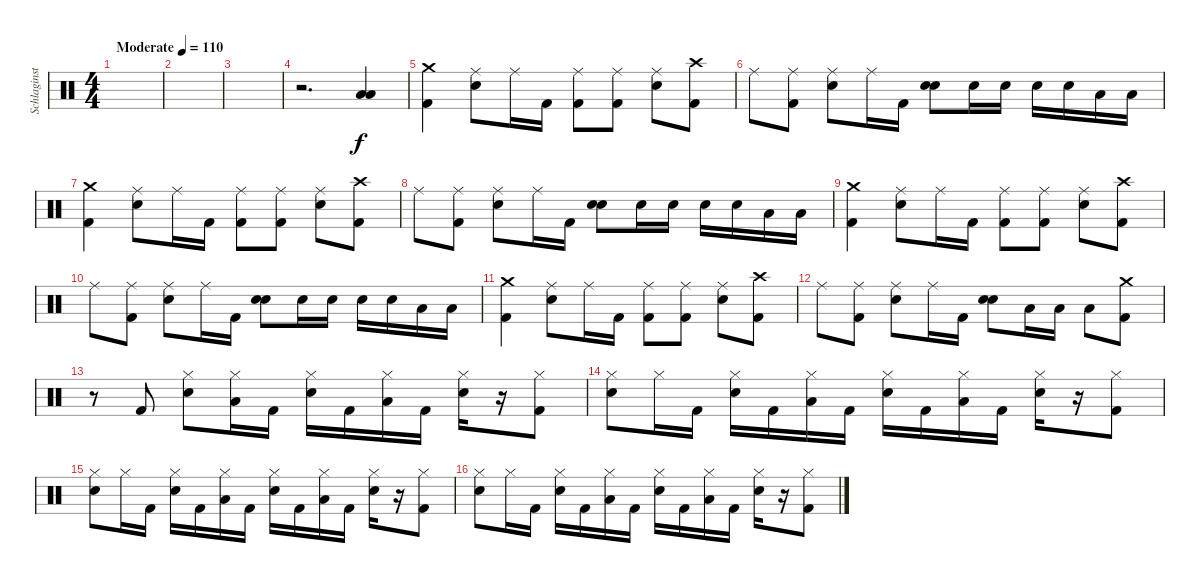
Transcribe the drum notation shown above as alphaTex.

\track ("Schlaginstrumente - Auswahl" "Schlaginst") {instrument percussion}
\staff {score}
\articulation defaults
\ts (4 4)
\tempo (110 "Moderate")
\clef neutral
\ks c
|
|
|
r.2{d} ("Low Tom (hit)" "Low Floor Tom (hit)").4 |
("Crash medium (hit)" "Kick (hit) 2").4 ("Ride (middle)" "Snare (hit) 2").8 "Ride (middle)".16 "Kick (hit) 2".16 ("Ride (middle)" "Kick (hit) 2").8 ("Ride (middle)" "Kick (hit) 2").8 ("Ride (middle)" "Snare (hit) 2").8 ("Crash high (hit)" "Kick (hit) 2").8 |
"Ride (middle)".8 ("Ride (middle)" "Kick (hit) 2").8 ("Ride (middle)" "Snare (hit) 2").8 "Ride (middle)".16 "Kick (hit) 2".16 ("Snare (hit) 2" "Snare (hit) 2").8{bd 240} "Snare (hit) 2".16 "Snare (hit) 2".16 "Snare (hit) 2".16 "Snare (hit) 2".16 "Low Tom (hit)".16 "Low Tom (hit)".16 |
("Crash medium (hit)" "Kick (hit) 2").4 ("Ride (middle)" "Snare (hit) 2").8 "Ride (middle)".16 "Kick (hit) 2".16 ("Ride (middle)" "Kick (hit) 2").8 ("Ride (middle)" "Kick (hit) 2").8 ("Ride (middle)" "Snare (hit) 2").8 ("Crash high (hit)" "Kick (hit) 2").8 |
"Ride (middle)".8 ("Ride (middle)" "Kick (hit) 2").8 ("Ride (middle)" "Snare (hit) 2").8 "Ride (middle)".16 "Kick (hit) 2".16 ("Snare (hit) 2" "Snare (hit) 2").8{bd 240} "Snare (hit) 2".16 "Snare (hit) 2".16 "Snare (hit) 2".16 "Snare (hit) 2".16 "Low Tom (hit)".16 "Low Tom (hit)".16 |
("Crash medium (hit)" "Kick (hit) 2").4 ("Ride (middle)" "Snare (hit) 2").8 "Ride (middle)".16 "Kick (hit) 2".16 ("Ride (middle)" "Kick (hit) 2").8 ("Ride (middle)" "Kick (hit) 2").8 ("Ride (middle)" "Snare (hit) 2").8 ("Crash high (hit)" "Kick (hit) 2").8 |
"Ride (middle)".8 ("Ride (middle)" "Kick (hit) 2").8 ("Ride (middle)" "Snare (hit) 2").8 "Ride (middle)".16 "Kick (hit) 2".16 ("Snare (hit) 2" "Snare (hit) 2").8{bd 240} "Snare (hit) 2".16 "Snare (hit) 2".16 "Snare (hit) 2".16 "Snare (hit) 2".16 "Low Tom (hit)".16 "Low Tom (hit)".16 |
("Crash medium (hit)" "Kick (hit) 2").4 ("Ride (middle)" "Snare (hit) 2").8 "Ride (middle)".16 "Kick (hit) 2".16 ("Ride (middle)" "Kick (hit) 2").8 ("Ride (middle)" "Kick (hit) 2").8 ("Ride (middle)" "Snare (hit) 2").8 ("Crash high (hit)" "Kick (hit) 2").8 |
"Ride (middle)".8 ("Ride (middle)" "Kick (hit) 2").8 ("Ride (middle)" "Snare (hit) 2").8 "Ride (middle)".16 "Kick (hit) 2".16 ("Snare (hit) 2" "Snare (hit) 2").8{bd 240} "Low Tom (hit)".16 "Low Tom (hit)".16 "Low Floor Tom (hit)".8 ("Crash medium (hit)" "Kick (hit) 2").8 |
r.8 "Kick (hit) 2".8 ("Hi-Hat (closed)" "Snare (hit) 2").8 ("Hi-Hat (closed)" "Low Floor Tom (hit)").16 "Kick (hit) 2".16 ("Hi-Hat (closed)" "Snare (hit) 2").16 "Kick (hit) 2".16 ("Hi-Hat (closed)" "Low Floor Tom (hit)").16 "Kick (hit) 2".16 ("Hi-Hat (closed)" "Snare (hit) 2").16 r.16 ("Hi-Hat (closed)" "Kick (hit) 2").8 |
("Hi-Hat (closed)" "Snare (hit) 2").8 "Hi-Hat (closed)".16 "Kick (hit) 2".16 ("Hi-Hat (closed)" "Snare (hit) 2").16 "Kick (hit) 2".16 ("Hi-Hat (closed)" "Low Floor Tom (hit)").16 "Kick (hit) 2".16 ("Hi-Hat (closed)" "Snare (hit) 2").16 "Kick (hit) 2".16 ("Hi-Hat (closed)" "Low Floor Tom (hit)").16 "Kick (hit) 2".16 ("Hi-Hat (closed)" "Snare (hit) 2").16 r.16 ("Hi-Hat (closed)" "Kick (hit) 2").8 |
("Hi-Hat (closed)" "Snare (hit) 2").8 "Hi-Hat (closed)".16 "Kick (hit) 2".16 ("Hi-Hat (closed)" "Snare (hit) 2").16 "Kick (hit) 2".16 ("Hi-Hat (closed)" "Low Floor Tom (hit)").16 "Kick (hit) 2".16 ("Hi-Hat (closed)" "Snare (hit) 2").16 "Kick (hit) 2".16 ("Hi-Hat (closed)" "Low Floor Tom (hit)").16 "Kick (hit) 2".16 ("Hi-Hat (closed)" "Snare (hit) 2").16 r.16 ("Hi-Hat (closed)" "Kick (hit) 2").8 |
("Hi-Hat (closed)" "Snare (hit) 2").8 "Hi-Hat (closed)".16 "Kick (hit) 2".16 ("Hi-Hat (closed)" "Snare (hit) 2").16 "Kick (hit) 2".16 ("Hi-Hat (closed)" "Low Floor Tom (hit)").16 "Kick (hit) 2".16 ("Hi-Hat (closed)" "Snare (hit) 2").16 "Kick (hit) 2".16 ("Hi-Hat (closed)" "Low Floor Tom (hit)").16 "Kick (hit) 2".16 ("Hi-Hat (closed)" "Snare (hit) 2").16 r.16 ("Hi-Hat (closed)" "Kick (hit) 2").8
